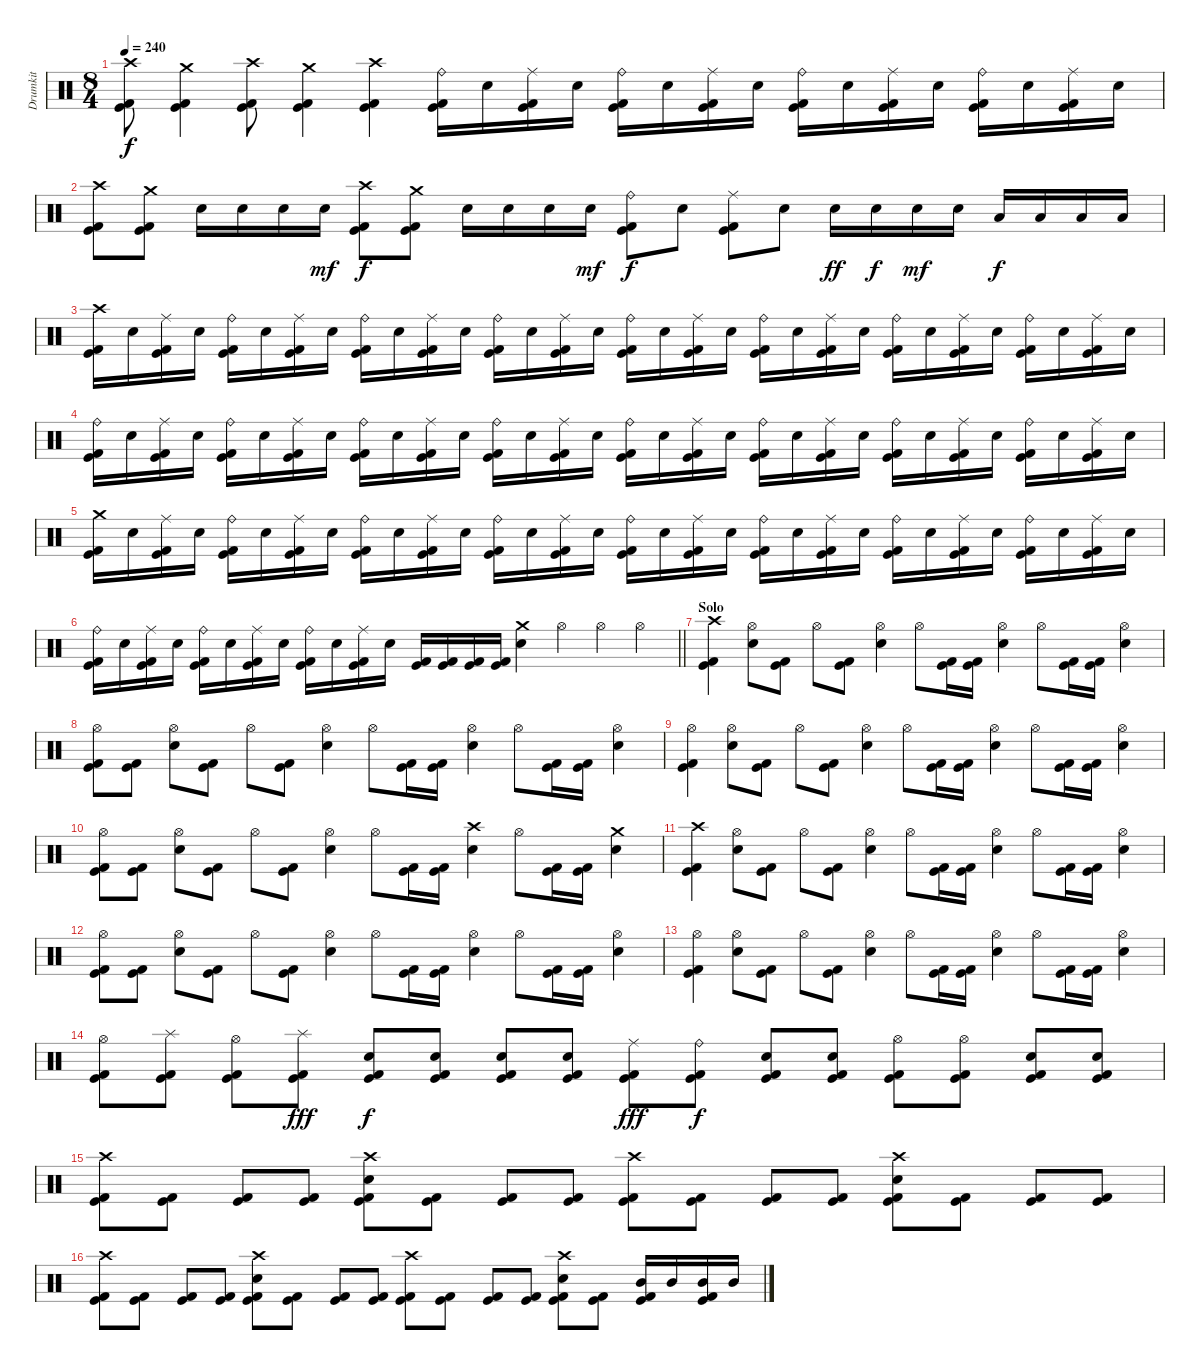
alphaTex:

\track ("Drumkit" "Drumkit") {instrument percussion}
\staff {score}
\articulation defaults
\ts (8 4)
\tempo 240
\clef neutral
\ks c
("Crash high (hit)" "Kick (hit)" "Kick (hit) 2").8{dy f} ("Crash medium (hit)" "Kick (hit)" "Kick (hit) 2").4 ("Crash high (hit)" "Kick (hit)" "Kick (hit) 2").8 ("Crash medium (hit)" "Kick (hit)" "Kick (hit) 2").4 ("Crash high (hit)" "Kick (hit)" "Kick (hit) 2").4 ("Ride (bell)" "Kick (hit)" "Kick (hit) 2").16 "Electric Snare (hit)".16 ("Ride (middle)" "Kick (hit)" "Kick (hit) 2").16 "Electric Snare (hit)".16 ("Ride (bell)" "Kick (hit)" "Kick (hit) 2").16 "Electric Snare (hit)".16 ("Ride (middle)" "Kick (hit)" "Kick (hit) 2").16 "Electric Snare (hit)".16 ("Ride (bell)" "Kick (hit)" "Kick (hit) 2").16 "Electric Snare (hit)".16 ("Ride (middle)" "Kick (hit)" "Kick (hit) 2").16 "Electric Snare (hit)".16 ("Ride (bell)" "Kick (hit)" "Kick (hit) 2").16 "Electric Snare (hit)".16 ("Ride (middle)" "Kick (hit)" "Kick (hit) 2").16 "Electric Snare (hit)".16 |
("Crash high (hit)" "Kick (hit)" "Kick (hit) 2").8 ("Crash medium (hit)" "Kick (hit)" "Kick (hit) 2").8 "Electric Snare (hit)".16 "Electric Snare (hit)".16 "Electric Snare (hit)".16 "Electric Snare (hit)".16{dy mf} ("Crash high (hit)" "Kick (hit)" "Kick (hit) 2").8{dy f} ("Crash medium (hit)" "Kick (hit)" "Kick (hit) 2").8 "Electric Snare (hit)".16 "Electric Snare (hit)".16 "Electric Snare (hit)".16 "Electric Snare (hit)".16{dy mf} ("Ride (bell)" "Kick (hit)" "Kick (hit) 2").8{dy f} "Electric Snare (hit)".8 ("Ride (middle)" "Kick (hit)" "Kick (hit) 2").8 "Electric Snare (hit)".8 "Electric Snare (hit)".16{dy ff} "Electric Snare (hit)".16{dy f} "Electric Snare (hit)".16{dy mf} "Electric Snare (hit)".16 "Low Tom (hit)".16{dy f} "Low Tom (hit)".16 "Low Tom (hit)".16 "Low Tom (hit)".16 |
("Crash high (hit)" "Kick (hit)" "Kick (hit) 2").16 "Electric Snare (hit)".16 ("Ride (middle)" "Kick (hit)" "Kick (hit) 2").16 "Electric Snare (hit)".16 ("Ride (bell)" "Kick (hit)" "Kick (hit) 2").16 "Electric Snare (hit)".16 ("Ride (middle)" "Kick (hit)" "Kick (hit) 2").16 "Electric Snare (hit)".16 ("Ride (bell)" "Kick (hit)" "Kick (hit) 2").16 "Electric Snare (hit)".16 ("Ride (middle)" "Kick (hit)" "Kick (hit) 2").16 "Electric Snare (hit)".16 ("Ride (bell)" "Kick (hit)" "Kick (hit) 2").16 "Electric Snare (hit)".16 ("Ride (middle)" "Kick (hit)" "Kick (hit) 2").16 "Electric Snare (hit)".16 ("Ride (bell)" "Kick (hit)" "Kick (hit) 2").16 "Electric Snare (hit)".16 ("Ride (middle)" "Kick (hit)" "Kick (hit) 2").16 "Electric Snare (hit)".16 ("Ride (bell)" "Kick (hit)" "Kick (hit) 2").16 "Electric Snare (hit)".16 ("Ride (middle)" "Kick (hit)" "Kick (hit) 2").16 "Electric Snare (hit)".16 ("Ride (bell)" "Kick (hit)" "Kick (hit) 2").16 "Electric Snare (hit)".16 ("Ride (middle)" "Kick (hit)" "Kick (hit) 2").16 "Electric Snare (hit)".16 ("Ride (bell)" "Kick (hit)" "Kick (hit) 2").16 "Electric Snare (hit)".16 ("Ride (middle)" "Kick (hit)" "Kick (hit) 2").16 "Electric Snare (hit)".16 |
("Ride (bell)" "Kick (hit)" "Kick (hit) 2").16 "Electric Snare (hit)".16 ("Ride (middle)" "Kick (hit)" "Kick (hit) 2").16 "Electric Snare (hit)".16 ("Ride (bell)" "Kick (hit)" "Kick (hit) 2").16 "Electric Snare (hit)".16 ("Ride (middle)" "Kick (hit)" "Kick (hit) 2").16 "Electric Snare (hit)".16 ("Ride (bell)" "Kick (hit)" "Kick (hit) 2").16 "Electric Snare (hit)".16 ("Ride (middle)" "Kick (hit)" "Kick (hit) 2").16 "Electric Snare (hit)".16 ("Ride (bell)" "Kick (hit)" "Kick (hit) 2").16 "Electric Snare (hit)".16 ("Ride (middle)" "Kick (hit)" "Kick (hit) 2").16 "Electric Snare (hit)".16 ("Ride (bell)" "Kick (hit)" "Kick (hit) 2").16 "Electric Snare (hit)".16 ("Ride (middle)" "Kick (hit)" "Kick (hit) 2").16 "Electric Snare (hit)".16 ("Ride (bell)" "Kick (hit)" "Kick (hit) 2").16 "Electric Snare (hit)".16 ("Ride (middle)" "Kick (hit)" "Kick (hit) 2").16 "Electric Snare (hit)".16 ("Ride (bell)" "Kick (hit)" "Kick (hit) 2").16 "Electric Snare (hit)".16 ("Ride (middle)" "Kick (hit)" "Kick (hit) 2").16 "Electric Snare (hit)".16 ("Ride (bell)" "Kick (hit)" "Kick (hit) 2").16 "Electric Snare (hit)".16 ("Ride (middle)" "Kick (hit)" "Kick (hit) 2").16 "Electric Snare (hit)".16 |
("Crash medium (hit)" "Kick (hit)" "Kick (hit) 2").16 "Electric Snare (hit)".16 ("Ride (middle)" "Kick (hit)" "Kick (hit) 2").16 "Electric Snare (hit)".16 ("Ride (bell)" "Kick (hit)" "Kick (hit) 2").16 "Electric Snare (hit)".16 ("Ride (middle)" "Kick (hit)" "Kick (hit) 2").16 "Electric Snare (hit)".16 ("Ride (bell)" "Kick (hit)" "Kick (hit) 2").16 "Electric Snare (hit)".16 ("Ride (middle)" "Kick (hit)" "Kick (hit) 2").16 "Electric Snare (hit)".16 ("Ride (bell)" "Kick (hit)" "Kick (hit) 2").16 "Electric Snare (hit)".16 ("Ride (middle)" "Kick (hit)" "Kick (hit) 2").16 "Electric Snare (hit)".16 ("Ride (bell)" "Kick (hit)" "Kick (hit) 2").16 "Electric Snare (hit)".16 ("Ride (middle)" "Kick (hit)" "Kick (hit) 2").16 "Electric Snare (hit)".16 ("Ride (bell)" "Kick (hit)" "Kick (hit) 2").16 "Electric Snare (hit)".16 ("Ride (middle)" "Kick (hit)" "Kick (hit) 2").16 "Electric Snare (hit)".16 ("Ride (bell)" "Kick (hit)" "Kick (hit) 2").16 "Electric Snare (hit)".16 ("Ride (middle)" "Kick (hit)" "Kick (hit) 2").16 "Electric Snare (hit)".16 ("Ride (bell)" "Kick (hit)" "Kick (hit) 2").16 "Electric Snare (hit)".16 ("Ride (middle)" "Kick (hit)" "Kick (hit) 2").16 "Electric Snare (hit)".16 |
\barLineRight lightlight
("Ride (bell)" "Kick (hit)" "Kick (hit) 2").16 "Electric Snare (hit)".16 ("Ride (middle)" "Kick (hit)" "Kick (hit) 2").16 "Electric Snare (hit)".16 ("Ride (bell)" "Kick (hit)" "Kick (hit) 2").16 "Electric Snare (hit)".16 ("Ride (middle)" "Kick (hit)" "Kick (hit) 2").16 "Electric Snare (hit)".16 ("Ride (bell)" "Kick (hit)" "Kick (hit) 2").16 "Electric Snare (hit)".16 ("Ride (middle)" "Kick (hit)" "Kick (hit) 2").16 "Electric Snare (hit)".16 ("Kick (hit)" "Kick (hit) 2").16 ("Kick (hit)" "Kick (hit) 2").16 ("Kick (hit)" "Kick (hit) 2").16 ("Kick (hit)" "Kick (hit) 2").16 ("Crash medium (hit)" "Electric Snare (hit)").4 "Hi-Hat (open)".4 "Hi-Hat (open)".4 "Hi-Hat (open)".4 |
\section ("" "Solo")
("Crash high (hit)" "Kick (hit)" "Kick (hit) 2").4 ("Hi-Hat (open)" "Electric Snare (hit)").8 ("Kick (hit)" "Kick (hit) 2").8 "Hi-Hat (open)".8 ("Kick (hit)" "Kick (hit) 2").8 ("Hi-Hat (open)" "Electric Snare (hit)").4 "Hi-Hat (open)".8 ("Kick (hit)" "Kick (hit) 2").16 ("Kick (hit)" "Kick (hit) 2").16 ("Hi-Hat (open)" "Electric Snare (hit)").4 "Hi-Hat (open)".8 ("Kick (hit)" "Kick (hit) 2").16 ("Kick (hit)" "Kick (hit) 2").16 ("Hi-Hat (open)" "Electric Snare (hit)").4 |
("Hi-Hat (open)" "Kick (hit)" "Kick (hit) 2").8 ("Kick (hit)" "Kick (hit) 2").8 ("Hi-Hat (open)" "Electric Snare (hit)").8 ("Kick (hit)" "Kick (hit) 2").8 "Hi-Hat (open)".8 ("Kick (hit)" "Kick (hit) 2").8 ("Hi-Hat (open)" "Electric Snare (hit)").4 "Hi-Hat (open)".8 ("Kick (hit)" "Kick (hit) 2").16 ("Kick (hit)" "Kick (hit) 2").16 ("Hi-Hat (open)" "Electric Snare (hit)").4 "Hi-Hat (open)".8 ("Kick (hit)" "Kick (hit) 2").16 ("Kick (hit)" "Kick (hit) 2").16 ("Hi-Hat (open)" "Electric Snare (hit)").4 |
("Hi-Hat (open)" "Kick (hit)" "Kick (hit) 2").4 ("Hi-Hat (open)" "Electric Snare (hit)").8 ("Kick (hit)" "Kick (hit) 2").8 "Hi-Hat (open)".8 ("Kick (hit)" "Kick (hit) 2").8 ("Hi-Hat (open)" "Electric Snare (hit)").4 "Hi-Hat (open)".8 ("Kick (hit)" "Kick (hit) 2").16 ("Kick (hit)" "Kick (hit) 2").16 ("Hi-Hat (open)" "Electric Snare (hit)").4 "Hi-Hat (open)".8 ("Kick (hit)" "Kick (hit) 2").16 ("Kick (hit)" "Kick (hit) 2").16 ("Hi-Hat (open)" "Electric Snare (hit)").4 |
("Hi-Hat (open)" "Kick (hit)" "Kick (hit) 2").8 ("Kick (hit)" "Kick (hit) 2").8 ("Hi-Hat (open)" "Electric Snare (hit)").8 ("Kick (hit)" "Kick (hit) 2").8 "Hi-Hat (open)".8 ("Kick (hit)" "Kick (hit) 2").8 ("Hi-Hat (open)" "Electric Snare (hit)").4 "Hi-Hat (open)".8 ("Kick (hit)" "Kick (hit) 2").16 ("Kick (hit)" "Kick (hit) 2").16 ("Crash high (hit)" "Electric Snare (hit)").4 "Hi-Hat (open)".8 ("Kick (hit)" "Kick (hit) 2").16 ("Kick (hit)" "Kick (hit) 2").16 ("Crash medium (hit)" "Electric Snare (hit)").4 |
("Crash high (hit)" "Kick (hit)" "Kick (hit) 2").4 ("Hi-Hat (open)" "Electric Snare (hit)").8 ("Kick (hit)" "Kick (hit) 2").8 "Hi-Hat (open)".8 ("Kick (hit)" "Kick (hit) 2").8 ("Hi-Hat (open)" "Electric Snare (hit)").4 "Hi-Hat (open)".8 ("Kick (hit)" "Kick (hit) 2").16 ("Kick (hit)" "Kick (hit) 2").16 ("Hi-Hat (open)" "Electric Snare (hit)").4 "Hi-Hat (open)".8 ("Kick (hit)" "Kick (hit) 2").16 ("Kick (hit)" "Kick (hit) 2").16 ("Hi-Hat (open)" "Electric Snare (hit)").4 |
("Hi-Hat (open)" "Kick (hit)" "Kick (hit) 2").8 ("Kick (hit)" "Kick (hit) 2").8 ("Hi-Hat (open)" "Electric Snare (hit)").8 ("Kick (hit)" "Kick (hit) 2").8 "Hi-Hat (open)".8 ("Kick (hit)" "Kick (hit) 2").8 ("Hi-Hat (open)" "Electric Snare (hit)").4 "Hi-Hat (open)".8 ("Kick (hit)" "Kick (hit) 2").16 ("Kick (hit)" "Kick (hit) 2").16 ("Hi-Hat (open)" "Electric Snare (hit)").4 "Hi-Hat (open)".8 ("Kick (hit)" "Kick (hit) 2").16 ("Kick (hit)" "Kick (hit) 2").16 ("Hi-Hat (open)" "Electric Snare (hit)").4 |
("Hi-Hat (open)" "Kick (hit)" "Kick (hit) 2").4 ("Hi-Hat (open)" "Electric Snare (hit)").8 ("Kick (hit)" "Kick (hit) 2").8 "Hi-Hat (open)".8 ("Kick (hit)" "Kick (hit) 2").8 ("Hi-Hat (open)" "Electric Snare (hit)").4 "Hi-Hat (open)".8 ("Kick (hit)" "Kick (hit) 2").16 ("Kick (hit)" "Kick (hit) 2").16 ("Hi-Hat (open)" "Electric Snare (hit)").4 "Hi-Hat (open)".8 ("Kick (hit)" "Kick (hit) 2").16 ("Kick (hit)" "Kick (hit) 2").16 ("Hi-Hat (open)" "Electric Snare (hit)").4 |
("Hi-Hat (open)" "Kick (hit)" "Kick (hit) 2").8 ("Splash (hit)" "Kick (hit)" "Kick (hit) 2").8 ("Hi-Hat (open)" "Kick (hit)" "Kick (hit) 2").8 ("Splash (hit)" "Kick (hit)" "Kick (hit) 2").8{dy fff} ("Electric Snare (hit)" "Kick (hit)" "Kick (hit) 2").8{dy f} ("Electric Snare (hit)" "Kick (hit)" "Kick (hit) 2").8 ("Electric Snare (hit)" "Kick (hit)" "Kick (hit) 2").8 ("Electric Snare (hit)" "Kick (hit)" "Kick (hit) 2").8 ("Ride (middle)" "Kick (hit)" "Kick (hit) 2").8{dy fff} ("Ride (bell)" "Kick (hit)" "Kick (hit) 2").8{dy f} ("Electric Snare (hit)" "Kick (hit)" "Kick (hit) 2").8 ("Electric Snare (hit)" "Kick (hit)" "Kick (hit) 2").8 ("Hi-Hat (open)" "Kick (hit)" "Kick (hit) 2").8 ("Hi-Hat (open)" "Kick (hit)" "Kick (hit) 2").8 ("Electric Snare (hit)" "Kick (hit)" "Kick (hit) 2").8 ("Electric Snare (hit)" "Kick (hit)" "Kick (hit) 2").8 |
("Crash high (hit)" "Kick (hit)" "Kick (hit) 2").8 ("Kick (hit)" "Kick (hit) 2").8 ("Kick (hit)" "Kick (hit) 2").8 ("Kick (hit)" "Kick (hit) 2").8 ("Crash high (hit)" "Electric Snare (hit)" "Kick (hit)" "Kick (hit) 2").8 ("Kick (hit)" "Kick (hit) 2").8 ("Kick (hit)" "Kick (hit) 2").8 ("Kick (hit)" "Kick (hit) 2").8 ("Crash high (hit)" "Kick (hit)" "Kick (hit) 2").8 ("Kick (hit)" "Kick (hit) 2").8 ("Kick (hit)" "Kick (hit) 2").8 ("Kick (hit)" "Kick (hit) 2").8 ("Crash high (hit)" "Electric Snare (hit)" "Kick (hit)" "Kick (hit) 2").8 ("Kick (hit)" "Kick (hit) 2").8 ("Kick (hit)" "Kick (hit) 2").8 ("Kick (hit)" "Kick (hit) 2").8 |
("Crash high (hit)" "Kick (hit)" "Kick (hit) 2").8 ("Kick (hit)" "Kick (hit) 2").8 ("Kick (hit)" "Kick (hit) 2").8 ("Kick (hit)" "Kick (hit) 2").8 ("Crash high (hit)" "Electric Snare (hit)" "Kick (hit)" "Kick (hit) 2").8 ("Kick (hit)" "Kick (hit) 2").8 ("Kick (hit)" "Kick (hit) 2").8 ("Kick (hit)" "Kick (hit) 2").8 ("Crash high (hit)" "Kick (hit)" "Kick (hit) 2").8 ("Kick (hit)" "Kick (hit) 2").8 ("Kick (hit)" "Kick (hit) 2").8 ("Kick (hit)" "Kick (hit) 2").8 ("Crash high (hit)" "Electric Snare (hit)" "Kick (hit)" "Kick (hit) 2").8 ("Kick (hit)" "Kick (hit) 2").8 ("Mid Tom (hit)" "Kick (hit)" "Kick (hit) 2").16 "Mid Tom (hit)".16 ("Mid Tom (hit)" "Kick (hit)" "Kick (hit) 2").16 "Mid Tom (hit)".16
